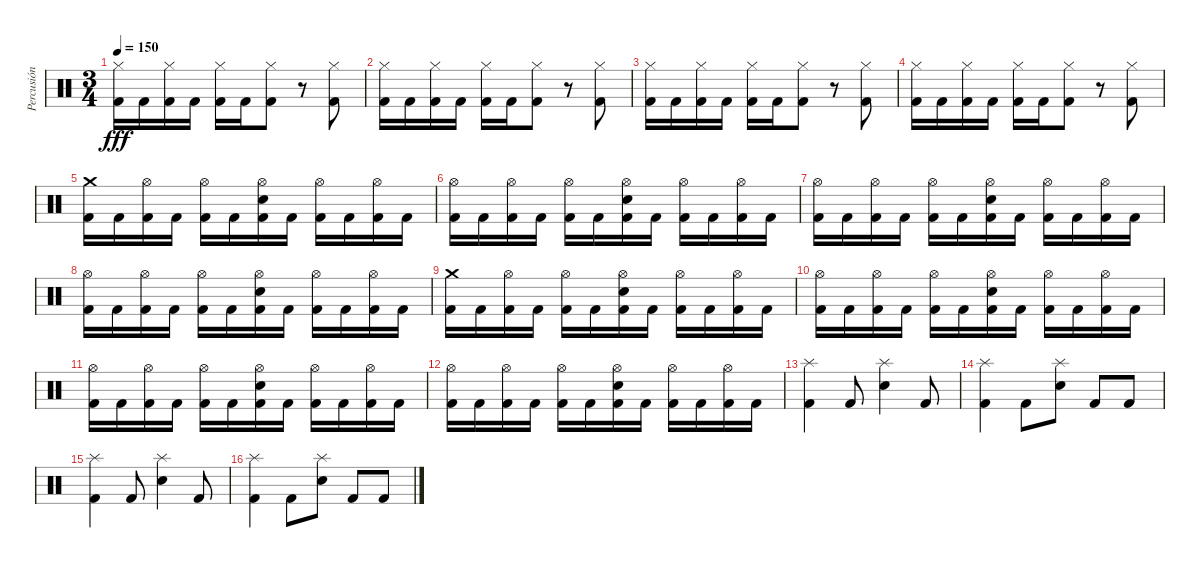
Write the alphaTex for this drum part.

\track ("Percusión" "Percusión") {instrument percussion}
\staff {score}
\articulation defaults
\ts (3 4)
\tempo 150
\clef neutral
\ks c
("Hi-Hat (closed)" "Kick (hit) 2").16{dy fff} "Kick (hit) 2".16 ("Hi-Hat (closed)" "Kick (hit) 2").16 "Kick (hit) 2".16 ("Hi-Hat (closed)" "Kick (hit) 2").16 "Kick (hit) 2".16 ("Hi-Hat (closed)" "Kick (hit) 2").8 r.8 ("Hi-Hat (closed)" "Kick (hit) 2").8 |
("Hi-Hat (closed)" "Kick (hit) 2").16 "Kick (hit) 2".16 ("Hi-Hat (closed)" "Kick (hit) 2").16 "Kick (hit) 2".16 ("Hi-Hat (closed)" "Kick (hit) 2").16 "Kick (hit) 2".16 ("Hi-Hat (closed)" "Kick (hit) 2").8 r.8 ("Hi-Hat (closed)" "Kick (hit) 2").8 |
("Hi-Hat (closed)" "Kick (hit) 2").16 "Kick (hit) 2".16 ("Hi-Hat (closed)" "Kick (hit) 2").16 "Kick (hit) 2".16 ("Hi-Hat (closed)" "Kick (hit) 2").16 "Kick (hit) 2".16 ("Hi-Hat (closed)" "Kick (hit) 2").8 r.8 ("Hi-Hat (closed)" "Kick (hit) 2").8 |
("Hi-Hat (closed)" "Kick (hit) 2").16 "Kick (hit) 2".16 ("Hi-Hat (closed)" "Kick (hit) 2").16 "Kick (hit) 2".16 ("Hi-Hat (closed)" "Kick (hit) 2").16 "Kick (hit) 2".16 ("Hi-Hat (closed)" "Kick (hit) 2").8 r.8 ("Hi-Hat (closed)" "Kick (hit) 2").8 |
("Crash medium (hit)" "Kick (hit) 2").16 "Kick (hit) 2".16 ("Hi-Hat (open)" "Kick (hit) 2").16 "Kick (hit) 2".16 ("Hi-Hat (open)" "Kick (hit) 2").16 "Kick (hit) 2".16 ("Hi-Hat (open)" "Snare (hit) 2" "Kick (hit) 2").16 "Kick (hit) 2".16 ("Hi-Hat (open)" "Kick (hit) 2").16 "Kick (hit) 2".16 ("Hi-Hat (open)" "Kick (hit) 2").16 "Kick (hit) 2".16 |
("Hi-Hat (open)" "Kick (hit) 2").16 "Kick (hit) 2".16 ("Hi-Hat (open)" "Kick (hit) 2").16 "Kick (hit) 2".16 ("Hi-Hat (open)" "Kick (hit) 2").16 "Kick (hit) 2".16 ("Hi-Hat (open)" "Snare (hit) 2" "Kick (hit) 2").16 "Kick (hit) 2".16 ("Hi-Hat (open)" "Kick (hit) 2").16 "Kick (hit) 2".16 ("Hi-Hat (open)" "Kick (hit) 2").16 "Kick (hit) 2".16 |
("Hi-Hat (open)" "Kick (hit) 2").16 "Kick (hit) 2".16 ("Hi-Hat (open)" "Kick (hit) 2").16 "Kick (hit) 2".16 ("Hi-Hat (open)" "Kick (hit) 2").16 "Kick (hit) 2".16 ("Hi-Hat (open)" "Snare (hit) 2" "Kick (hit) 2").16 "Kick (hit) 2".16 ("Hi-Hat (open)" "Kick (hit) 2").16 "Kick (hit) 2".16 ("Hi-Hat (open)" "Kick (hit) 2").16 "Kick (hit) 2".16 |
("Hi-Hat (open)" "Kick (hit) 2").16 "Kick (hit) 2".16 ("Hi-Hat (open)" "Kick (hit) 2").16 "Kick (hit) 2".16 ("Hi-Hat (open)" "Kick (hit) 2").16 "Kick (hit) 2".16 ("Hi-Hat (open)" "Snare (hit) 2" "Kick (hit) 2").16 "Kick (hit) 2".16 ("Hi-Hat (open)" "Kick (hit) 2").16 "Kick (hit) 2".16 ("Hi-Hat (open)" "Kick (hit) 2").16 "Kick (hit) 2".16 |
("Crash medium (hit)" "Kick (hit) 2").16 "Kick (hit) 2".16 ("Hi-Hat (open)" "Kick (hit) 2").16 "Kick (hit) 2".16 ("Hi-Hat (open)" "Kick (hit) 2").16 "Kick (hit) 2".16 ("Hi-Hat (open)" "Snare (hit) 2" "Kick (hit) 2").16 "Kick (hit) 2".16 ("Hi-Hat (open)" "Kick (hit) 2").16 "Kick (hit) 2".16 ("Hi-Hat (open)" "Kick (hit) 2").16 "Kick (hit) 2".16 |
("Hi-Hat (open)" "Kick (hit) 2").16 "Kick (hit) 2".16 ("Hi-Hat (open)" "Kick (hit) 2").16 "Kick (hit) 2".16 ("Hi-Hat (open)" "Kick (hit) 2").16 "Kick (hit) 2".16 ("Hi-Hat (open)" "Snare (hit) 2" "Kick (hit) 2").16 "Kick (hit) 2".16 ("Hi-Hat (open)" "Kick (hit) 2").16 "Kick (hit) 2".16 ("Hi-Hat (open)" "Kick (hit) 2").16 "Kick (hit) 2".16 |
("Hi-Hat (open)" "Kick (hit) 2").16 "Kick (hit) 2".16 ("Hi-Hat (open)" "Kick (hit) 2").16 "Kick (hit) 2".16 ("Hi-Hat (open)" "Kick (hit) 2").16 "Kick (hit) 2".16 ("Hi-Hat (open)" "Snare (hit) 2" "Kick (hit) 2").16 "Kick (hit) 2".16 ("Hi-Hat (open)" "Kick (hit) 2").16 "Kick (hit) 2".16 ("Hi-Hat (open)" "Kick (hit) 2").16 "Kick (hit) 2".16 |
("Hi-Hat (open)" "Kick (hit) 2").16 "Kick (hit) 2".16 ("Hi-Hat (open)" "Kick (hit) 2").16 "Kick (hit) 2".16 ("Hi-Hat (open)" "Kick (hit) 2").16 "Kick (hit) 2".16 ("Hi-Hat (open)" "Snare (hit) 2" "Kick (hit) 2").16 "Kick (hit) 2".16 ("Hi-Hat (open)" "Kick (hit) 2").16 "Kick (hit) 2".16 ("Hi-Hat (open)" "Kick (hit) 2").16 "Kick (hit) 2".16 |
("Splash (hit)" "Kick (hit) 2").4 "Kick (hit) 2".8 ("Splash (hit)" "Snare (hit) 2").4 "Kick (hit) 2".8 |
("Splash (hit)" "Kick (hit) 2").4 "Kick (hit) 2".8 ("Splash (hit)" "Snare (hit) 2").8 "Kick (hit) 2".8 "Kick (hit) 2".8 |
("Splash (hit)" "Kick (hit) 2").4 "Kick (hit) 2".8 ("Splash (hit)" "Snare (hit) 2").4 "Kick (hit) 2".8 |
("Splash (hit)" "Kick (hit) 2").4 "Kick (hit) 2".8 ("Splash (hit)" "Snare (hit) 2").8 "Kick (hit) 2".8 "Kick (hit) 2".8
